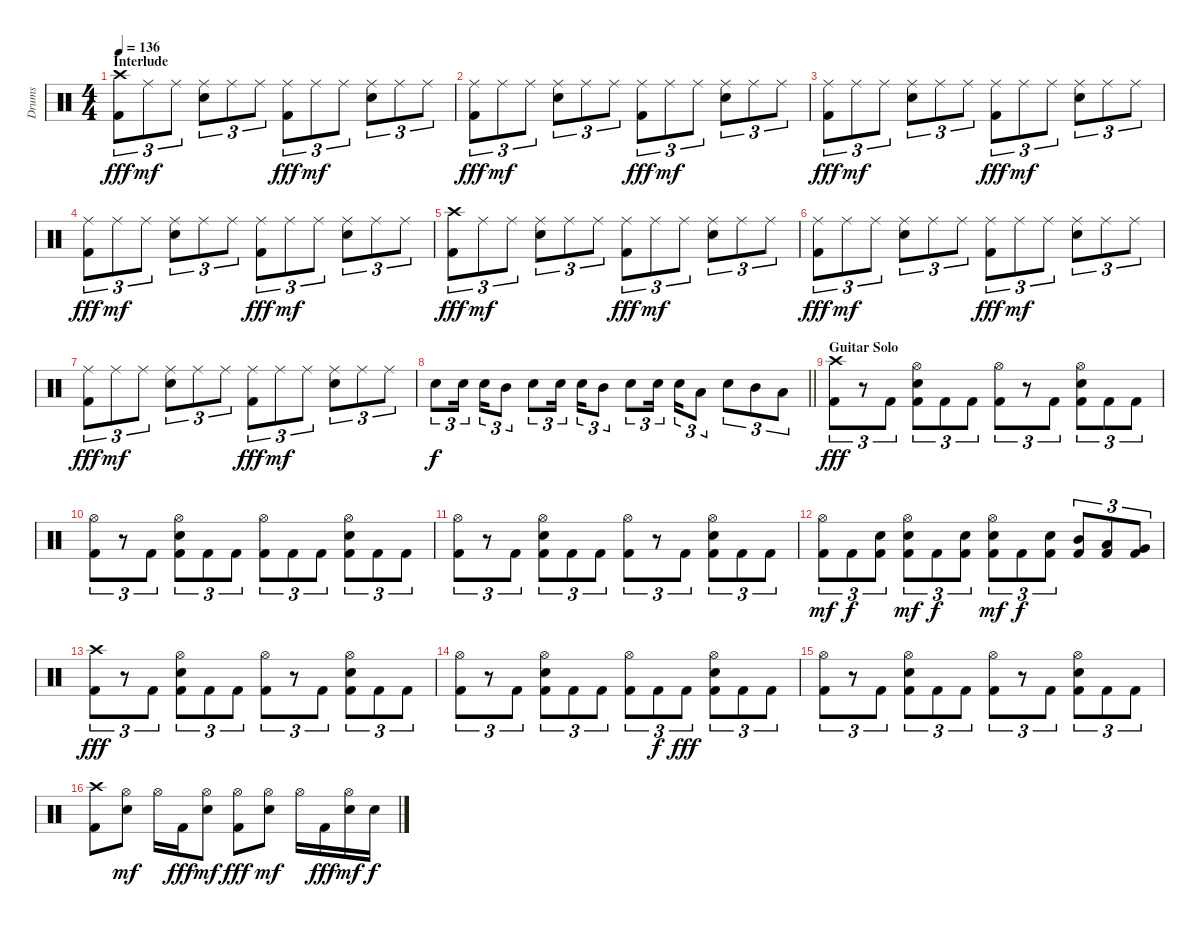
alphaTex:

\track ("Drums" "Drums") {instrument percussion}
\staff {score}
\articulation defaults
\ts (4 4)
\section ("" "Interlude")
\tempo 136
\clef neutral
\ks c
("Crash high (hit)" "Kick (hit) 2").8{tu (3 2) dy fff} "Ride (middle)".8{tu (3 2) dy mf} "Ride (middle)".8{tu (3 2)} ("Ride (middle)" "Electric Snare (hit)").8{tu (3 2)} "Ride (middle)".8{tu (3 2)} "Ride (middle)".8{tu (3 2)} ("Ride (middle)" "Kick (hit) 2").8{tu (3 2) dy fff} "Ride (middle)".8{tu (3 2) dy mf} "Ride (middle)".8{tu (3 2)} ("Ride (middle)" "Electric Snare (hit)").8{tu (3 2)} "Ride (middle)".8{tu (3 2)} "Ride (middle)".8{tu (3 2)} |
("Ride (middle)" "Kick (hit) 2").8{tu (3 2) dy fff} "Ride (middle)".8{tu (3 2) dy mf} "Ride (middle)".8{tu (3 2)} ("Ride (middle)" "Electric Snare (hit)").8{tu (3 2)} "Ride (middle)".8{tu (3 2)} "Ride (middle)".8{tu (3 2)} ("Ride (middle)" "Kick (hit) 2").8{tu (3 2) dy fff} "Ride (middle)".8{tu (3 2) dy mf} "Ride (middle)".8{tu (3 2)} ("Ride (middle)" "Electric Snare (hit)").8{tu (3 2)} "Ride (middle)".8{tu (3 2)} "Ride (middle)".8{tu (3 2)} |
("Ride (middle)" "Kick (hit) 2").8{tu (3 2) dy fff} "Ride (middle)".8{tu (3 2) dy mf} "Ride (middle)".8{tu (3 2)} ("Ride (middle)" "Electric Snare (hit)").8{tu (3 2)} "Ride (middle)".8{tu (3 2)} "Ride (middle)".8{tu (3 2)} ("Ride (middle)" "Kick (hit) 2").8{tu (3 2) dy fff} "Ride (middle)".8{tu (3 2) dy mf} "Ride (middle)".8{tu (3 2)} ("Ride (middle)" "Electric Snare (hit)").8{tu (3 2)} "Ride (middle)".8{tu (3 2)} "Ride (middle)".8{tu (3 2)} |
("Ride (middle)" "Kick (hit) 2").8{tu (3 2) dy fff} "Ride (middle)".8{tu (3 2) dy mf} "Ride (middle)".8{tu (3 2)} ("Ride (middle)" "Electric Snare (hit)").8{tu (3 2)} "Ride (middle)".8{tu (3 2)} "Ride (middle)".8{tu (3 2)} ("Ride (middle)" "Kick (hit) 2").8{tu (3 2) dy fff} "Ride (middle)".8{tu (3 2) dy mf} "Ride (middle)".8{tu (3 2)} ("Ride (middle)" "Electric Snare (hit)").8{tu (3 2)} "Ride (middle)".8{tu (3 2)} "Ride (middle)".8{tu (3 2)} |
("Crash high (hit)" "Kick (hit) 2").8{tu (3 2) dy fff} "Ride (middle)".8{tu (3 2) dy mf} "Ride (middle)".8{tu (3 2)} ("Ride (middle)" "Electric Snare (hit)").8{tu (3 2)} "Ride (middle)".8{tu (3 2)} "Ride (middle)".8{tu (3 2)} ("Ride (middle)" "Kick (hit) 2").8{tu (3 2) dy fff} "Ride (middle)".8{tu (3 2) dy mf} "Ride (middle)".8{tu (3 2)} ("Ride (middle)" "Electric Snare (hit)").8{tu (3 2)} "Ride (middle)".8{tu (3 2)} "Ride (middle)".8{tu (3 2)} |
("Ride (middle)" "Kick (hit) 2").8{tu (3 2) dy fff} "Ride (middle)".8{tu (3 2) dy mf} "Ride (middle)".8{tu (3 2)} ("Ride (middle)" "Electric Snare (hit)").8{tu (3 2)} "Ride (middle)".8{tu (3 2)} "Ride (middle)".8{tu (3 2)} ("Ride (middle)" "Kick (hit) 2").8{tu (3 2) dy fff} "Ride (middle)".8{tu (3 2) dy mf} "Ride (middle)".8{tu (3 2)} ("Ride (middle)" "Electric Snare (hit)").8{tu (3 2)} "Ride (middle)".8{tu (3 2)} "Ride (middle)".8{tu (3 2)} |
("Ride (middle)" "Kick (hit) 2").8{tu (3 2) dy fff} "Ride (middle)".8{tu (3 2) dy mf} "Ride (middle)".8{tu (3 2)} ("Ride (middle)" "Electric Snare (hit)").8{tu (3 2)} "Ride (middle)".8{tu (3 2)} "Ride (middle)".8{tu (3 2)} ("Ride (middle)" "Kick (hit) 2").8{tu (3 2) dy fff} "Ride (middle)".8{tu (3 2) dy mf} "Ride (middle)".8{tu (3 2)} ("Ride (middle)" "Electric Snare (hit)").8{tu (3 2)} "Ride (middle)".8{tu (3 2)} "Ride (middle)".8{tu (3 2)} |
\barLineRight lightlight "Electric Snare (hit)".8{tu (3 2) dy f} "Electric Snare (hit)".16{tu (3 2)} "Electric Snare (hit)".16{tu (3 2)} "Mid Tom (hit)".8{tu (3 2)} "Electric Snare (hit)".8{tu (3 2)} "Electric Snare (hit)".16{tu (3 2)} "Electric Snare (hit)".16{tu (3 2)} "Mid Tom (hit)".8{tu (3 2)} "Electric Snare (hit)".8{tu (3 2)} "Electric Snare (hit)".16{tu (3 2)} "Electric Snare (hit)".16{tu (3 2)} "Low Tom (hit)".8{tu (3 2)} "Electric Snare (hit)".8{tu (3 2)} "Mid Tom (hit)".8{tu (3 2)} "Low Tom (hit)".8{tu (3 2)}
|
\section ("" "Guitar Solo")
("Crash high (hit)" "Kick (hit) 2").8{tu (3 2) dy fff} r.8{tu (3 2)} "Kick (hit) 2".8{tu (3 2)} ("Hi-Hat (open)" "Electric Snare (hit)" "Kick (hit) 2").8{tu (3 2)} "Kick (hit) 2".8{tu (3 2)} "Kick (hit) 2".8{tu (3 2)} ("Hi-Hat (open)" "Kick (hit) 2").8{tu (3 2)} r.8{tu (3 2)} "Kick (hit) 2".8{tu (3 2)} ("Hi-Hat (open)" "Electric Snare (hit)" "Kick (hit) 2").8{tu (3 2)} "Kick (hit) 2".8{tu (3 2)} "Kick (hit) 2".8{tu (3 2)} |
("Hi-Hat (open)" "Kick (hit) 2").8{tu (3 2)} r.8{tu (3 2)} "Kick (hit) 2".8{tu (3 2)} ("Hi-Hat (open)" "Electric Snare (hit)" "Kick (hit) 2").8{tu (3 2)} "Kick (hit) 2".8{tu (3 2)} "Kick (hit) 2".8{tu (3 2)} ("Hi-Hat (open)" "Kick (hit) 2").8{tu (3 2)} "Kick (hit) 2".8{tu (3 2)} "Kick (hit) 2".8{tu (3 2)} ("Hi-Hat (open)" "Electric Snare (hit)" "Kick (hit) 2").8{tu (3 2)} "Kick (hit) 2".8{tu (3 2)} "Kick (hit) 2".8{tu (3 2)} |
("Hi-Hat (open)" "Kick (hit) 2").8{tu (3 2)} r.8{tu (3 2)} "Kick (hit) 2".8{tu (3 2)} ("Hi-Hat (open)" "Electric Snare (hit)" "Kick (hit) 2").8{tu (3 2)} "Kick (hit) 2".8{tu (3 2)} "Kick (hit) 2".8{tu (3 2)} ("Hi-Hat (open)" "Kick (hit) 2").8{tu (3 2)} r.8{tu (3 2)} "Kick (hit) 2".8{tu (3 2)} ("Hi-Hat (open)" "Electric Snare (hit)" "Kick (hit) 2").8{tu (3 2)} "Kick (hit) 2".8{tu (3 2)} "Kick (hit) 2".8{tu (3 2)} |
("Hi-Hat (open)" "Kick (hit) 2").8{tu (3 2) dy mf} "Kick (hit) 2".8{tu (3 2) dy f} ("Electric Snare (hit)" "Kick (hit) 2").8{tu (3 2)} ("Hi-Hat (open)" "Electric Snare (hit)" "Kick (hit) 2").8{tu (3 2) dy mf} "Kick (hit) 2".8{tu (3 2) dy f} ("Electric Snare (hit)" "Kick (hit) 2").8{tu (3 2)} ("Hi-Hat (open)" "Electric Snare (hit)" "Kick (hit) 2").8{tu (3 2) dy mf} "Kick (hit) 2".8{tu (3 2) dy f} ("Electric Snare (hit)" "Kick (hit) 2").8{tu (3 2)} ("Mid Tom (hit)" "Kick (hit) 2").8{tu (3 2)} ("Low Tom (hit)" "Kick (hit) 2").8{tu (3 2)} ("Very Low Tom (hit)" "Kick (hit) 2").8{tu (3 2)} |
("Crash high (hit)" "Kick (hit) 2").8{tu (3 2) dy fff} r.8{tu (3 2)} "Kick (hit) 2".8{tu (3 2)} ("Hi-Hat (open)" "Electric Snare (hit)" "Kick (hit) 2").8{tu (3 2)} "Kick (hit) 2".8{tu (3 2)} "Kick (hit) 2".8{tu (3 2)} ("Hi-Hat (open)" "Kick (hit) 2").8{tu (3 2)} r.8{tu (3 2)} "Kick (hit) 2".8{tu (3 2)} ("Hi-Hat (open)" "Electric Snare (hit)" "Kick (hit) 2").8{tu (3 2)} "Kick (hit) 2".8{tu (3 2)} "Kick (hit) 2".8{tu (3 2)} |
("Hi-Hat (open)" "Kick (hit) 2").8{tu (3 2)} r.8{tu (3 2)} "Kick (hit) 2".8{tu (3 2)} ("Hi-Hat (open)" "Electric Snare (hit)" "Kick (hit) 2").8{tu (3 2)} "Kick (hit) 2".8{tu (3 2)} "Kick (hit) 2".8{tu (3 2)} ("Hi-Hat (open)" "Kick (hit) 2").8{tu (3 2)} "Kick (hit) 2".8{tu (3 2) dy f} "Kick (hit) 2".8{tu (3 2) dy fff} ("Hi-Hat (open)" "Electric Snare (hit)" "Kick (hit) 2").8{tu (3 2)} "Kick (hit) 2".8{tu (3 2)} "Kick (hit) 2".8{tu (3 2)} |
("Hi-Hat (open)" "Kick (hit) 2").8{tu (3 2)} r.8{tu (3 2)} "Kick (hit) 2".8{tu (3 2)} ("Hi-Hat (open)" "Electric Snare (hit)" "Kick (hit) 2").8{tu (3 2)} "Kick (hit) 2".8{tu (3 2)} "Kick (hit) 2".8{tu (3 2)} ("Hi-Hat (open)" "Kick (hit) 2").8{tu (3 2)} r.8{tu (3 2)} "Kick (hit) 2".8{tu (3 2)} ("Hi-Hat (open)" "Electric Snare (hit)" "Kick (hit) 2").8{tu (3 2)} "Kick (hit) 2".8{tu (3 2)} "Kick (hit) 2".8{tu (3 2)} |
("Crash high (hit)" "Kick (hit) 2").8 ("Hi-Hat (open)" "Electric Snare (hit)").8{dy mf} "Hi-Hat (open)".16 "Kick (hit) 2".16{dy fff} ("Hi-Hat (open)" "Electric Snare (hit)").8{dy mf} ("Hi-Hat (open)" "Kick (hit) 2").8{dy fff} ("Hi-Hat (open)" "Electric Snare (hit)").8{dy mf} "Hi-Hat (open)".16 "Kick (hit) 2".16{dy fff} ("Hi-Hat (open)" "Electric Snare (hit)").16{dy mf} "Electric Snare (hit)".16{dy f}
